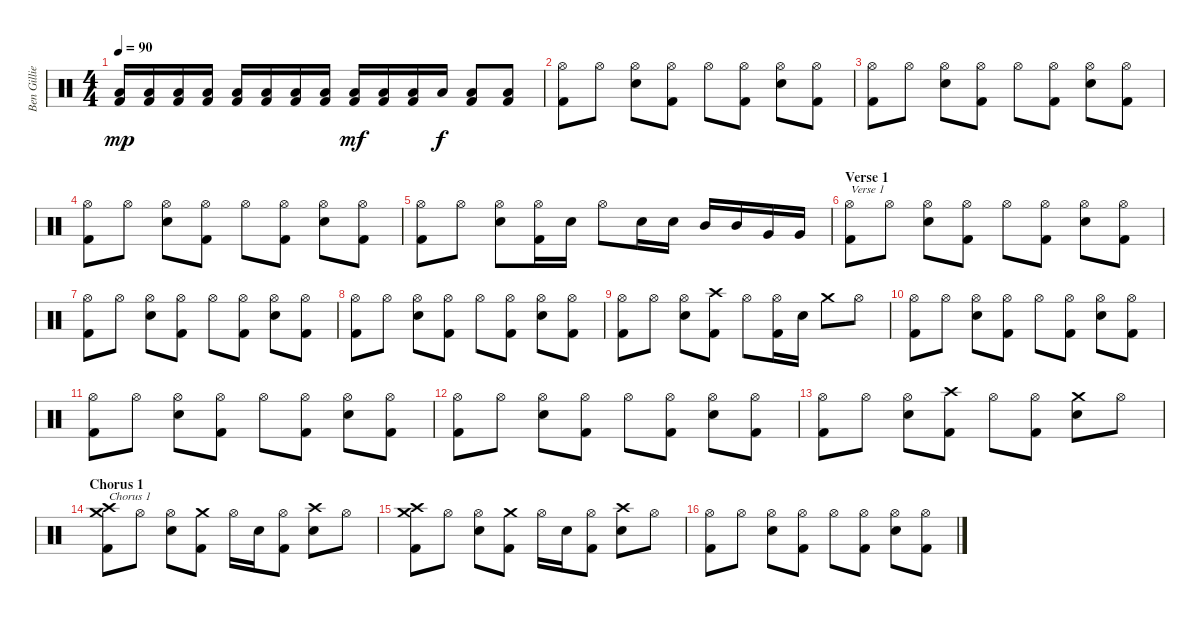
\track ("Ben Gillies" "Ben Gillie") {instrument percussion}
\staff {score}
\articulation defaults
\ts (4 4)
\tempo 90
\clef neutral
\ks c
("Low Floor Tom (hit)" "Kick (hit) 2").16{dy mp} ("Low Floor Tom (hit)" "Kick (hit) 2").16 ("Low Floor Tom (hit)" "Kick (hit) 2").16 ("Low Floor Tom (hit)" "Kick (hit) 2").16 ("Low Floor Tom (hit)" "Kick (hit) 2").16 ("Low Floor Tom (hit)" "Kick (hit) 2").16 ("Low Floor Tom (hit)" "Kick (hit) 2").16 ("Low Floor Tom (hit)" "Kick (hit) 2").16 ("Low Floor Tom (hit)" "Kick (hit) 2").16{dy mf} ("Low Floor Tom (hit)" "Kick (hit) 2").16 ("Low Floor Tom (hit)" "Kick (hit) 2").16 "Low Floor Tom (hit)".16{dy f} ("Low Floor Tom (hit)" "Kick (hit) 2").8 ("Low Floor Tom (hit)" "Kick (hit) 2").8 |
("Hi-Hat (open)" "Kick (hit) 2").8 "Hi-Hat (open)".8 ("Hi-Hat (open)" "Electric Snare (hit)").8 ("Hi-Hat (open)" "Kick (hit) 2").8 "Hi-Hat (open)".8 ("Hi-Hat (open)" "Kick (hit) 2").8 ("Hi-Hat (open)" "Electric Snare (hit)").8 ("Hi-Hat (open)" "Kick (hit) 2").8 |
("Hi-Hat (open)" "Kick (hit) 2").8 "Hi-Hat (open)".8 ("Hi-Hat (open)" "Electric Snare (hit)").8 ("Hi-Hat (open)" "Kick (hit) 2").8 "Hi-Hat (open)".8 ("Hi-Hat (open)" "Kick (hit) 2").8 ("Hi-Hat (open)" "Electric Snare (hit)").8 ("Hi-Hat (open)" "Kick (hit) 2").8 |
("Hi-Hat (open)" "Kick (hit) 2").8 "Hi-Hat (open)".8 ("Hi-Hat (open)" "Electric Snare (hit)").8 ("Hi-Hat (open)" "Kick (hit) 2").8 "Hi-Hat (open)".8 ("Hi-Hat (open)" "Kick (hit) 2").8 ("Hi-Hat (open)" "Electric Snare (hit)").8 ("Hi-Hat (open)" "Kick (hit) 2").8 |
("Hi-Hat (open)" "Kick (hit) 2").8 "Hi-Hat (open)".8 ("Hi-Hat (open)" "Electric Snare (hit)").8 ("Hi-Hat (open)" "Kick (hit) 2").16 "Electric Snare (hit)".16 "Hi-Hat (open)".8 "Electric Snare (hit)".16 "Electric Snare (hit)".16 "Mid Tom (hit)".16 "Mid Tom (hit)".16 "Very Low Tom (hit)".16 "Very Low Tom (hit)".16 |
\section ("" "Verse 1")
("Hi-Hat (open)" "Kick (hit) 2").8{txt "Verse 1"} "Hi-Hat (open)".8 ("Hi-Hat (open)" "Electric Snare (hit)").8 ("Hi-Hat (open)" "Kick (hit) 2").8 "Hi-Hat (open)".8 ("Hi-Hat (open)" "Kick (hit) 2").8 ("Hi-Hat (open)" "Electric Snare (hit)").8 ("Hi-Hat (open)" "Kick (hit) 2").8 |
("Hi-Hat (open)" "Kick (hit) 2").8 "Hi-Hat (open)".8 ("Hi-Hat (open)" "Electric Snare (hit)").8 ("Hi-Hat (open)" "Kick (hit) 2").8 "Hi-Hat (open)".8 ("Hi-Hat (open)" "Kick (hit) 2").8 ("Hi-Hat (open)" "Electric Snare (hit)").8 ("Hi-Hat (open)" "Kick (hit) 2").8 |
("Hi-Hat (open)" "Kick (hit) 2").8 "Hi-Hat (open)".8 ("Hi-Hat (open)" "Electric Snare (hit)").8 ("Hi-Hat (open)" "Kick (hit) 2").8 "Hi-Hat (open)".8 ("Hi-Hat (open)" "Kick (hit) 2").8 ("Hi-Hat (open)" "Electric Snare (hit)").8 ("Hi-Hat (open)" "Kick (hit) 2").8 |
("Hi-Hat (open)" "Kick (hit) 2").8 "Hi-Hat (open)".8 ("Hi-Hat (open)" "Electric Snare (hit)").8 ("Crash high (hit)" "Kick (hit) 2").8 "Hi-Hat (open)".8 ("Hi-Hat (open)" "Kick (hit) 2").16 "Electric Snare (hit)".16 "Crash medium (hit)".8 "Hi-Hat (open)".8 |
("Hi-Hat (open)" "Kick (hit) 2").8 "Hi-Hat (open)".8 ("Hi-Hat (open)" "Electric Snare (hit)").8 ("Hi-Hat (open)" "Kick (hit) 2").8 "Hi-Hat (open)".8 ("Hi-Hat (open)" "Kick (hit) 2").8 ("Hi-Hat (open)" "Electric Snare (hit)").8 ("Hi-Hat (open)" "Kick (hit) 2").8 |
("Hi-Hat (open)" "Kick (hit) 2").8 "Hi-Hat (open)".8 ("Hi-Hat (open)" "Electric Snare (hit)").8 ("Hi-Hat (open)" "Kick (hit) 2").8 "Hi-Hat (open)".8 ("Hi-Hat (open)" "Kick (hit) 2").8 ("Hi-Hat (open)" "Electric Snare (hit)").8 ("Hi-Hat (open)" "Kick (hit) 2").8 |
("Hi-Hat (open)" "Kick (hit) 2").8 "Hi-Hat (open)".8 ("Hi-Hat (open)" "Electric Snare (hit)").8 ("Hi-Hat (open)" "Kick (hit) 2").8 "Hi-Hat (open)".8 ("Hi-Hat (open)" "Kick (hit) 2").8 ("Hi-Hat (open)" "Electric Snare (hit)").8 ("Hi-Hat (open)" "Kick (hit) 2").8 |
("Hi-Hat (open)" "Kick (hit) 2").8 "Hi-Hat (open)".8 ("Hi-Hat (open)" "Electric Snare (hit)").8 ("Crash high (hit)" "Kick (hit) 2").8 "Hi-Hat (open)".8 ("Hi-Hat (open)" "Kick (hit) 2").8 ("Electric Snare (hit)" "Crash medium (hit)").8 "Hi-Hat (open)".8 |
\section ("" "Chorus 1")
("Crash high (hit)" "Crash medium (hit)" "Kick (hit) 2").8{txt "Chorus 1"} "Hi-Hat (open)".8 ("Hi-Hat (open)" "Electric Snare (hit)").8 ("Crash medium (hit)" "Kick (hit) 2").8 "Hi-Hat (open)".16 "Electric Snare (hit)".16 ("Hi-Hat (open)" "Kick (hit) 2").8 ("Crash high (hit)" "Electric Snare (hit)").8 "Hi-Hat (open)".8 |
("Crash high (hit)" "Crash medium (hit)" "Kick (hit) 2").8 "Hi-Hat (open)".8 ("Hi-Hat (open)" "Electric Snare (hit)").8 ("Crash medium (hit)" "Kick (hit) 2").8 "Hi-Hat (open)".16 "Electric Snare (hit)".16 ("Hi-Hat (open)" "Kick (hit) 2").8 ("Crash high (hit)" "Electric Snare (hit)").8 "Hi-Hat (open)".8 |
("Hi-Hat (open)" "Kick (hit) 2").8 "Hi-Hat (open)".8 ("Hi-Hat (open)" "Electric Snare (hit)").8 ("Hi-Hat (open)" "Kick (hit) 2").8 "Hi-Hat (open)".8 ("Hi-Hat (open)" "Kick (hit) 2").8 ("Hi-Hat (open)" "Electric Snare (hit)").8 ("Hi-Hat (open)" "Kick (hit) 2").8
